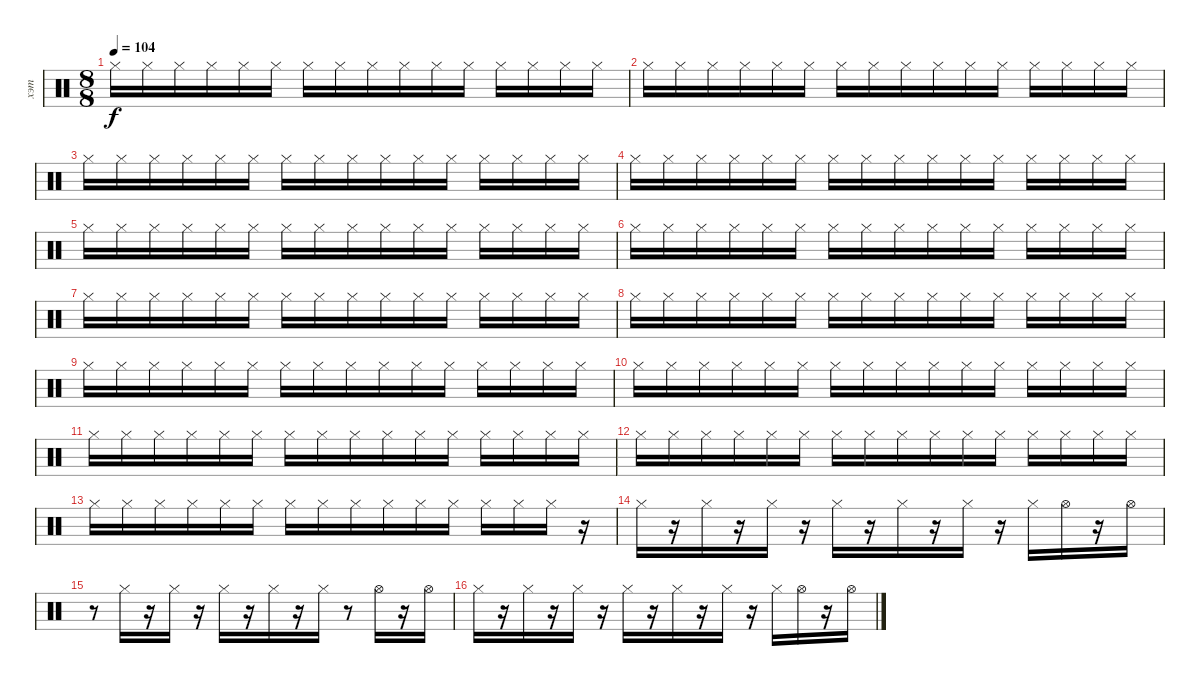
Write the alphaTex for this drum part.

\track ("хэт" "хэт") {instrument percussion}
\staff {score}
\articulation defaults
\ts (8 8)
\tempo 104
\clef neutral
\ks c "Hi-Hat (closed)".16{dy f} "Hi-Hat (closed)".16 "Hi-Hat (closed)".16 "Hi-Hat (closed)".16 "Hi-Hat (closed)".16 "Hi-Hat (closed)".16 "Hi-Hat (closed)".16 "Hi-Hat (closed)".16 "Hi-Hat (closed)".16 "Hi-Hat (closed)".16 "Hi-Hat (closed)".16 "Hi-Hat (closed)".16 "Hi-Hat (closed)".16 "Hi-Hat (closed)".16 "Hi-Hat (closed)".16 "Hi-Hat (closed)".16
|
"Hi-Hat (closed)".16 "Hi-Hat (closed)".16 "Hi-Hat (closed)".16 "Hi-Hat (closed)".16 "Hi-Hat (closed)".16 "Hi-Hat (closed)".16 "Hi-Hat (closed)".16 "Hi-Hat (closed)".16 "Hi-Hat (closed)".16 "Hi-Hat (closed)".16 "Hi-Hat (closed)".16 "Hi-Hat (closed)".16 "Hi-Hat (closed)".16 "Hi-Hat (closed)".16 "Hi-Hat (closed)".16 "Hi-Hat (closed)".16 |
"Hi-Hat (closed)".16 "Hi-Hat (closed)".16 "Hi-Hat (closed)".16 "Hi-Hat (closed)".16 "Hi-Hat (closed)".16 "Hi-Hat (closed)".16 "Hi-Hat (closed)".16 "Hi-Hat (closed)".16 "Hi-Hat (closed)".16 "Hi-Hat (closed)".16 "Hi-Hat (closed)".16 "Hi-Hat (closed)".16 "Hi-Hat (closed)".16 "Hi-Hat (closed)".16 "Hi-Hat (closed)".16 "Hi-Hat (closed)".16 |
"Hi-Hat (closed)".16 "Hi-Hat (closed)".16 "Hi-Hat (closed)".16 "Hi-Hat (closed)".16 "Hi-Hat (closed)".16 "Hi-Hat (closed)".16 "Hi-Hat (closed)".16 "Hi-Hat (closed)".16 "Hi-Hat (closed)".16 "Hi-Hat (closed)".16 "Hi-Hat (closed)".16 "Hi-Hat (closed)".16 "Hi-Hat (closed)".16 "Hi-Hat (closed)".16 "Hi-Hat (closed)".16 "Hi-Hat (closed)".16 |
"Hi-Hat (closed)".16 "Hi-Hat (closed)".16 "Hi-Hat (closed)".16 "Hi-Hat (closed)".16 "Hi-Hat (closed)".16 "Hi-Hat (closed)".16 "Hi-Hat (closed)".16 "Hi-Hat (closed)".16 "Hi-Hat (closed)".16 "Hi-Hat (closed)".16 "Hi-Hat (closed)".16 "Hi-Hat (closed)".16 "Hi-Hat (closed)".16 "Hi-Hat (closed)".16 "Hi-Hat (closed)".16 "Hi-Hat (closed)".16 |
"Hi-Hat (closed)".16 "Hi-Hat (closed)".16 "Hi-Hat (closed)".16 "Hi-Hat (closed)".16 "Hi-Hat (closed)".16 "Hi-Hat (closed)".16 "Hi-Hat (closed)".16 "Hi-Hat (closed)".16 "Hi-Hat (closed)".16 "Hi-Hat (closed)".16 "Hi-Hat (closed)".16 "Hi-Hat (closed)".16 "Hi-Hat (closed)".16 "Hi-Hat (closed)".16 "Hi-Hat (closed)".16 "Hi-Hat (closed)".16 |
"Hi-Hat (closed)".16 "Hi-Hat (closed)".16 "Hi-Hat (closed)".16 "Hi-Hat (closed)".16 "Hi-Hat (closed)".16 "Hi-Hat (closed)".16 "Hi-Hat (closed)".16 "Hi-Hat (closed)".16 "Hi-Hat (closed)".16 "Hi-Hat (closed)".16 "Hi-Hat (closed)".16 "Hi-Hat (closed)".16 "Hi-Hat (closed)".16 "Hi-Hat (closed)".16 "Hi-Hat (closed)".16 "Hi-Hat (closed)".16 |
"Hi-Hat (closed)".16 "Hi-Hat (closed)".16 "Hi-Hat (closed)".16 "Hi-Hat (closed)".16 "Hi-Hat (closed)".16 "Hi-Hat (closed)".16 "Hi-Hat (closed)".16 "Hi-Hat (closed)".16 "Hi-Hat (closed)".16 "Hi-Hat (closed)".16 "Hi-Hat (closed)".16 "Hi-Hat (closed)".16 "Hi-Hat (closed)".16 "Hi-Hat (closed)".16 "Hi-Hat (closed)".16 "Hi-Hat (closed)".16 |
"Hi-Hat (closed)".16 "Hi-Hat (closed)".16 "Hi-Hat (closed)".16 "Hi-Hat (closed)".16 "Hi-Hat (closed)".16 "Hi-Hat (closed)".16 "Hi-Hat (closed)".16 "Hi-Hat (closed)".16 "Hi-Hat (closed)".16 "Hi-Hat (closed)".16 "Hi-Hat (closed)".16 "Hi-Hat (closed)".16 "Hi-Hat (closed)".16 "Hi-Hat (closed)".16 "Hi-Hat (closed)".16 "Hi-Hat (closed)".16 |
"Hi-Hat (closed)".16 "Hi-Hat (closed)".16 "Hi-Hat (closed)".16 "Hi-Hat (closed)".16 "Hi-Hat (closed)".16 "Hi-Hat (closed)".16 "Hi-Hat (closed)".16 "Hi-Hat (closed)".16 "Hi-Hat (closed)".16 "Hi-Hat (closed)".16 "Hi-Hat (closed)".16 "Hi-Hat (closed)".16 "Hi-Hat (closed)".16 "Hi-Hat (closed)".16 "Hi-Hat (closed)".16 "Hi-Hat (closed)".16 |
"Hi-Hat (closed)".16 "Hi-Hat (closed)".16 "Hi-Hat (closed)".16 "Hi-Hat (closed)".16 "Hi-Hat (closed)".16 "Hi-Hat (closed)".16 "Hi-Hat (closed)".16 "Hi-Hat (closed)".16 "Hi-Hat (closed)".16 "Hi-Hat (closed)".16 "Hi-Hat (closed)".16 "Hi-Hat (closed)".16 "Hi-Hat (closed)".16 "Hi-Hat (closed)".16 "Hi-Hat (closed)".16 "Hi-Hat (closed)".16 |
"Hi-Hat (closed)".16 "Hi-Hat (closed)".16 "Hi-Hat (closed)".16 "Hi-Hat (closed)".16 "Hi-Hat (closed)".16 "Hi-Hat (closed)".16 "Hi-Hat (closed)".16 "Hi-Hat (closed)".16 "Hi-Hat (closed)".16 "Hi-Hat (closed)".16 "Hi-Hat (closed)".16 "Hi-Hat (closed)".16 "Hi-Hat (closed)".16 "Hi-Hat (closed)".16 "Hi-Hat (closed)".16 "Hi-Hat (closed)".16 |
"Hi-Hat (closed)".16 "Hi-Hat (closed)".16 "Hi-Hat (closed)".16 "Hi-Hat (closed)".16 "Hi-Hat (closed)".16 "Hi-Hat (closed)".16 "Hi-Hat (closed)".16 "Hi-Hat (closed)".16 "Hi-Hat (closed)".16 "Hi-Hat (closed)".16 "Hi-Hat (closed)".16 "Hi-Hat (closed)".16 "Hi-Hat (closed)".16 "Hi-Hat (closed)".16 "Hi-Hat (closed)".16 r.16 |
"Hi-Hat (closed)".16 r.16 "Hi-Hat (closed)".16 r.16 "Hi-Hat (closed)".16 r.16 "Hi-Hat (closed)".16 r.16 "Hi-Hat (closed)".16 r.16 "Hi-Hat (closed)".16 r.16 "Hi-Hat (closed)".16 "Hi-Hat (open)".16 r.16 "Hi-Hat (open)".16 |
r.8 "Hi-Hat (closed)".16 r.16 "Hi-Hat (closed)".16 r.16 "Hi-Hat (closed)".16 r.16 "Hi-Hat (closed)".16 r.16 "Hi-Hat (closed)".16 r.8 "Hi-Hat (open)".16 r.16 "Hi-Hat (open)".16 |
"Hi-Hat (closed)".16 r.16 "Hi-Hat (closed)".16 r.16 "Hi-Hat (closed)".16 r.16 "Hi-Hat (closed)".16 r.16 "Hi-Hat (closed)".16 r.16 "Hi-Hat (closed)".16 r.16 "Hi-Hat (closed)".16 "Hi-Hat (open)".16 r.16 "Hi-Hat (open)".16
